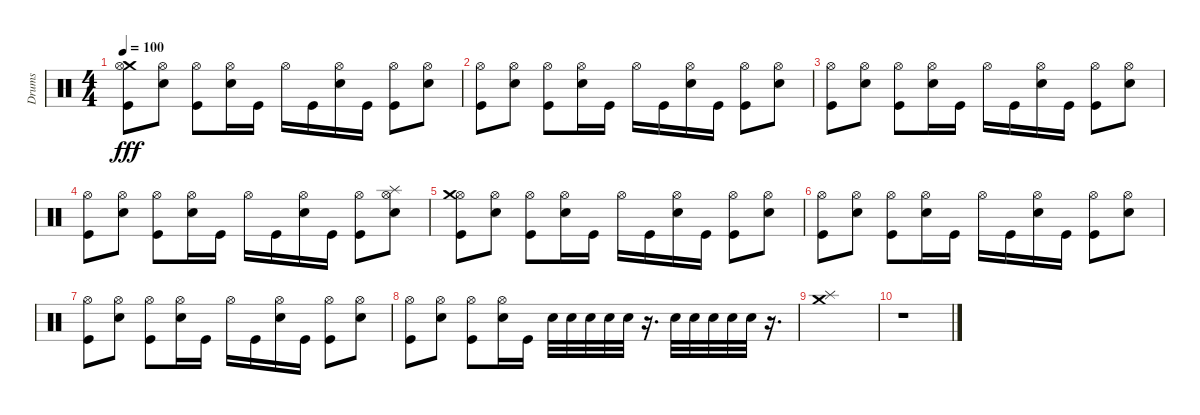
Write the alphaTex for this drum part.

\track ("Drums" "Drums") {instrument percussion}
\staff {score}
\articulation defaults
\ts (4 4)
\tempo 100
\clef neutral
\ks c
("Crash medium (hit)" "Hi-Hat (open)" "Kick (hit)").8{dy fff} ("Hi-Hat (open)" "Snare (hit) 2").8 ("Hi-Hat (open)" "Kick (hit)").8 ("Hi-Hat (open)" "Snare (hit) 2").16 "Kick (hit)".16 "Hi-Hat (open)".16 "Kick (hit)".16 ("Hi-Hat (open)" "Snare (hit) 2").16 "Kick (hit)".16 ("Hi-Hat (open)" "Kick (hit)").8 ("Hi-Hat (open)" "Snare (hit) 2").8 |
("Hi-Hat (open)" "Kick (hit)").8 ("Hi-Hat (open)" "Snare (hit) 2").8 ("Hi-Hat (open)" "Kick (hit)").8 ("Hi-Hat (open)" "Snare (hit) 2").16 "Kick (hit)".16 "Hi-Hat (open)".16 "Kick (hit)".16 ("Hi-Hat (open)" "Snare (hit) 2").16 "Kick (hit)".16 ("Hi-Hat (open)" "Kick (hit)").8 ("Hi-Hat (open)" "Snare (hit) 2").8 |
("Hi-Hat (open)" "Kick (hit)").8 ("Hi-Hat (open)" "Snare (hit) 2").8 ("Hi-Hat (open)" "Kick (hit)").8 ("Hi-Hat (open)" "Snare (hit) 2").16 "Kick (hit)".16 "Hi-Hat (open)".16 "Kick (hit)".16 ("Hi-Hat (open)" "Snare (hit) 2").16 "Kick (hit)".16 ("Hi-Hat (open)" "Kick (hit)").8 ("Hi-Hat (open)" "Snare (hit) 2").8 |
("Hi-Hat (open)" "Kick (hit)").8 ("Hi-Hat (open)" "Snare (hit) 2").8 ("Hi-Hat (open)" "Kick (hit)").8 ("Hi-Hat (open)" "Snare (hit) 2").16 "Kick (hit)".16 "Hi-Hat (open)".16 "Kick (hit)".16 ("Hi-Hat (open)" "Snare (hit) 2").16 "Kick (hit)".16 ("Hi-Hat (open)" "Kick (hit)").8 ("Hi-Hat (open)" "Snare (hit) 2" "Splash (hit)").8 |
("Hi-Hat (open)" "Kick (hit)" "Crash medium (hit)").8 ("Hi-Hat (open)" "Snare (hit) 2").8 ("Hi-Hat (open)" "Kick (hit)").8 ("Hi-Hat (open)" "Snare (hit) 2").16 "Kick (hit)".16 "Hi-Hat (open)".16 "Kick (hit)".16 ("Hi-Hat (open)" "Snare (hit) 2").16 "Kick (hit)".16 ("Hi-Hat (open)" "Kick (hit)").8 ("Hi-Hat (open)" "Snare (hit) 2").8 |
("Hi-Hat (open)" "Kick (hit)").8 ("Hi-Hat (open)" "Snare (hit) 2").8 ("Hi-Hat (open)" "Kick (hit)").8 ("Hi-Hat (open)" "Snare (hit) 2").16 "Kick (hit)".16 "Hi-Hat (open)".16 "Kick (hit)".16 ("Hi-Hat (open)" "Snare (hit) 2").16 "Kick (hit)".16 ("Hi-Hat (open)" "Kick (hit)").8 ("Hi-Hat (open)" "Snare (hit) 2").8 |
("Hi-Hat (open)" "Kick (hit)").8 ("Hi-Hat (open)" "Snare (hit) 2").8 ("Hi-Hat (open)" "Kick (hit)").8 ("Hi-Hat (open)" "Snare (hit) 2").16 "Kick (hit)".16 "Hi-Hat (open)".16 "Kick (hit)".16 ("Hi-Hat (open)" "Snare (hit) 2").16 "Kick (hit)".16 ("Hi-Hat (open)" "Kick (hit)").8 ("Hi-Hat (open)" "Snare (hit) 2").8 |
("Hi-Hat (open)" "Kick (hit)").8 ("Hi-Hat (open)" "Snare (hit) 2").8 ("Hi-Hat (open)" "Kick (hit)").8 ("Hi-Hat (open)" "Snare (hit) 2").16 "Kick (hit)".16 "Snare (hit) 2".32 "Snare (hit) 2".32 "Snare (hit) 2".32 "Snare (hit) 2".32 "Snare (hit) 2".32 r.16{d} "Snare (hit) 2".32 "Snare (hit) 2".32 "Snare (hit) 2".32 "Snare (hit) 2".32 "Snare (hit) 2".32 r.16{d} |
("Crash medium (hit)" "Splash (hit)").1 |
r.1
